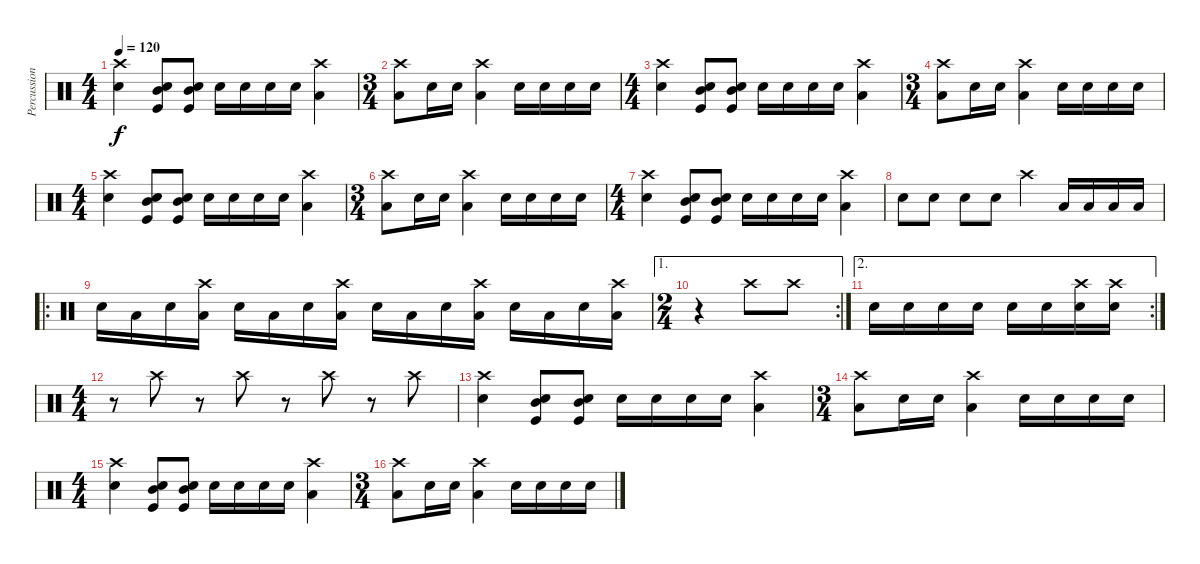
\track ("Percussions" "Percussion") {instrument percussion}
\staff {score}
\articulation defaults
\ts (4 4)
\tempo 120
\clef neutral
\ks c
("Crash high (hit)" "Snare (hit) 2").4{dy f} ("Mid Tom (hit)" "Electric Snare (hit)" "Kick (hit)").8 ("Mid Tom (hit)" "Electric Snare (hit)" "Kick (hit)").8 "Snare (hit) 2".16 "Snare (hit) 2".16 "Snare (hit) 2".16 "Snare (hit) 2".16 ("Low Tom (hit)" "Crash high (hit)").4 |
\ts (3 4)
("Crash high (hit)" "Low Tom (hit)").8 "Snare (hit) 2".16 "Snare (hit) 2".16 ("Low Tom (hit)" "Crash high (hit)").4 "Snare (hit) 2".16 "Snare (hit) 2".16 "Snare (hit) 2".16 "Snare (hit) 2".16 |
\ts (4 4)
("Crash high (hit)" "Snare (hit) 2").4 ("Mid Tom (hit)" "Electric Snare (hit)" "Kick (hit)").8 ("Mid Tom (hit)" "Electric Snare (hit)" "Kick (hit)").8 "Snare (hit) 2".16 "Snare (hit) 2".16 "Snare (hit) 2".16 "Snare (hit) 2".16 ("Low Tom (hit)" "Crash high (hit)").4 |
\ts (3 4)
("Crash high (hit)" "Low Tom (hit)").8 "Snare (hit) 2".16 "Snare (hit) 2".16 ("Low Tom (hit)" "Crash high (hit)").4 "Snare (hit) 2".16 "Snare (hit) 2".16 "Snare (hit) 2".16 "Snare (hit) 2".16 |
\ts (4 4)
("Crash high (hit)" "Snare (hit) 2").4 ("Mid Tom (hit)" "Electric Snare (hit)" "Kick (hit)").8 ("Mid Tom (hit)" "Electric Snare (hit)" "Kick (hit)").8 "Snare (hit) 2".16 "Snare (hit) 2".16 "Snare (hit) 2".16 "Snare (hit) 2".16 ("Low Tom (hit)" "Crash high (hit)").4 |
\ts (3 4)
("Crash high (hit)" "Low Tom (hit)").8 "Snare (hit) 2".16 "Snare (hit) 2".16 ("Low Tom (hit)" "Crash high (hit)").4 "Snare (hit) 2".16 "Snare (hit) 2".16 "Snare (hit) 2".16 "Snare (hit) 2".16 |
\ts (4 4)
("Crash high (hit)" "Snare (hit) 2").4 ("Mid Tom (hit)" "Electric Snare (hit)" "Kick (hit)").8 ("Mid Tom (hit)" "Electric Snare (hit)" "Kick (hit)").8 "Snare (hit) 2".16 "Snare (hit) 2".16 "Snare (hit) 2".16 "Snare (hit) 2".16 ("Low Tom (hit)" "Crash high (hit)").4 |
"Snare (hit) 2".8 "Snare (hit) 2".8 "Snare (hit) 2".8 "Snare (hit) 2".8 "Crash high (hit)".4 "Low Tom (hit)".16 "Low Tom (hit)".16 "Low Tom (hit)".16 "Low Tom (hit)".16 |
\ro "Snare (hit) 2".16 "Low Tom (hit)".16 "Snare (hit) 2".16
("Crash high (hit)" "Low Tom (hit)").16 "Snare (hit) 2".16 "Low Tom (hit)".16 "Snare (hit) 2".16 ("Crash high (hit)" "Low Tom (hit)").16 "Snare (hit) 2".16 "Low Tom (hit)".16 "Snare (hit) 2".16 ("Crash high (hit)" "Low Tom (hit)").16 "Snare (hit) 2".16 "Low Tom (hit)".16 "Snare (hit) 2".16 ("Crash high (hit)" "Low Tom (hit)").16 |
\ae 1
\rc 2
\ts (2 4)
r.4 "Crash high (hit)".8 "Crash high (hit)".8 |
\ae 2
\rc 2 "Snare (hit) 2".16 "Snare (hit) 2".16 "Snare (hit) 2".16 "Snare (hit) 2".16 "Snare (hit) 2".16 "Snare (hit) 2".16
("Crash high (hit)" "Snare (hit) 2").16 ("Crash high (hit)" "Snare (hit) 2").16 |
\ts (4 4)
r.8 "Crash high (hit)".8 r.8 "Crash high (hit)".8 r.8 "Crash high (hit)".8 r.8 "Crash high (hit)".8 |
("Crash high (hit)" "Snare (hit) 2").4 ("Mid Tom (hit)" "Electric Snare (hit)" "Kick (hit)").8 ("Mid Tom (hit)" "Electric Snare (hit)" "Kick (hit)").8 "Snare (hit) 2".16 "Snare (hit) 2".16 "Snare (hit) 2".16 "Snare (hit) 2".16 ("Low Tom (hit)" "Crash high (hit)").4 |
\ts (3 4)
("Crash high (hit)" "Low Tom (hit)").8 "Snare (hit) 2".16 "Snare (hit) 2".16 ("Low Tom (hit)" "Crash high (hit)").4 "Snare (hit) 2".16 "Snare (hit) 2".16 "Snare (hit) 2".16 "Snare (hit) 2".16 |
\ts (4 4)
("Crash high (hit)" "Snare (hit) 2").4 ("Mid Tom (hit)" "Electric Snare (hit)" "Kick (hit)").8 ("Mid Tom (hit)" "Electric Snare (hit)" "Kick (hit)").8 "Snare (hit) 2".16 "Snare (hit) 2".16 "Snare (hit) 2".16 "Snare (hit) 2".16 ("Low Tom (hit)" "Crash high (hit)").4 |
\ts (3 4)
("Crash high (hit)" "Low Tom (hit)").8 "Snare (hit) 2".16 "Snare (hit) 2".16 ("Low Tom (hit)" "Crash high (hit)").4 "Snare (hit) 2".16 "Snare (hit) 2".16 "Snare (hit) 2".16 "Snare (hit) 2".16
